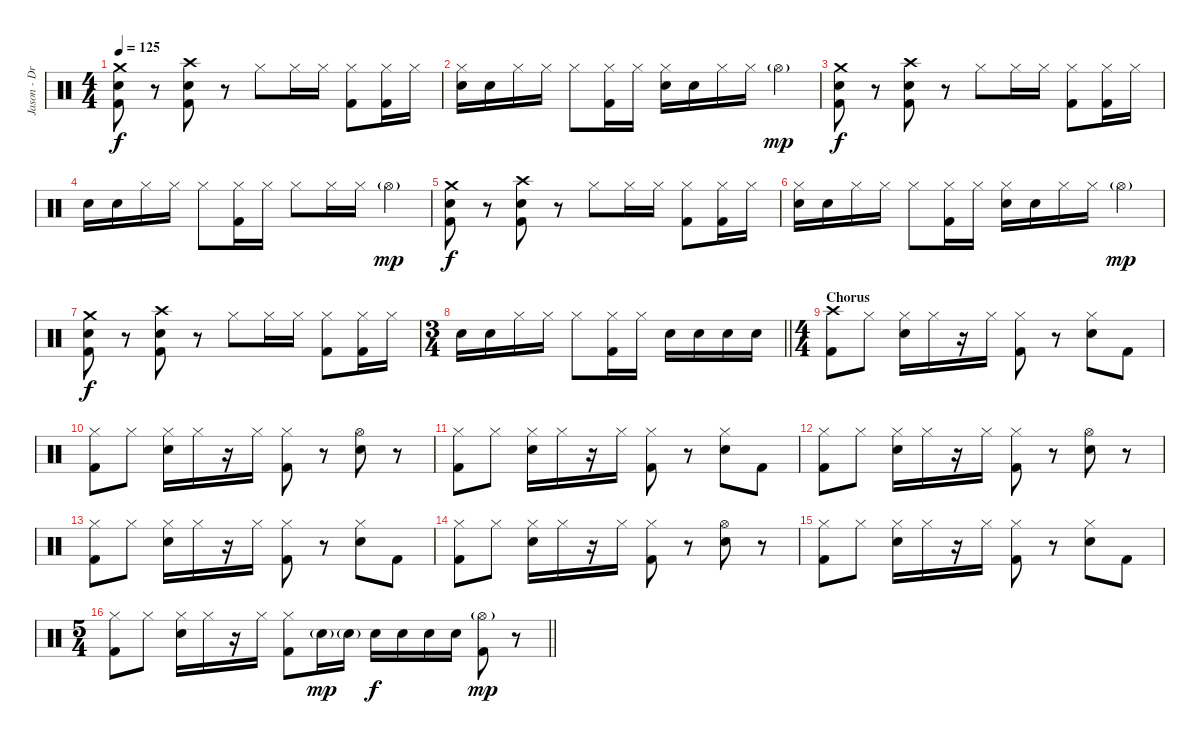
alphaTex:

\track ("Jason - Drums" "Jason - Dr") {instrument percussion}
\staff {score}
\articulation defaults
\ts (4 4)
\tempo 125
\clef neutral
\ks c
("Crash medium (hit)" "Electric Snare (hit)" "Kick (hit) 2").8{dy f} r.8 ("Crash high (hit)" "Electric Snare (hit)" "Kick (hit) 2").8 r.8 "Hi-Hat (closed)".8 "Hi-Hat (closed)".16 "Hi-Hat (closed)".16 ("Hi-Hat (closed)" "Kick (hit) 2").8 ("Hi-Hat (closed)" "Kick (hit) 2").16 "Hi-Hat (closed)".16 |
("Hi-Hat (closed)" "Electric Snare (hit)").16 "Electric Snare (hit)".16 "Hi-Hat (closed)".16 "Hi-Hat (closed)".16 "Hi-Hat (closed)".8 ("Hi-Hat (closed)" "Kick (hit) 2").16 "Hi-Hat (closed)".16 ("Hi-Hat (closed)" "Electric Snare (hit)").16 "Electric Snare (hit)".16 "Hi-Hat (closed)".16 "Hi-Hat (closed)".16 "Hi-Hat (open)"{g}.4{dy mp} |
("Crash medium (hit)" "Electric Snare (hit)" "Kick (hit) 2").8{dy f} r.8 ("Crash high (hit)" "Electric Snare (hit)" "Kick (hit) 2").8 r.8 "Hi-Hat (closed)".8 "Hi-Hat (closed)".16 "Hi-Hat (closed)".16 ("Hi-Hat (closed)" "Kick (hit) 2").8 ("Hi-Hat (closed)" "Kick (hit) 2").16 "Hi-Hat (closed)".16 |
"Electric Snare (hit)".16 "Electric Snare (hit)".16 "Hi-Hat (closed)".16 "Hi-Hat (closed)".16 "Hi-Hat (closed)".8 ("Hi-Hat (closed)" "Kick (hit) 2").16 "Hi-Hat (closed)".16 "Hi-Hat (closed)".8 "Hi-Hat (closed)".16 "Hi-Hat (closed)".16 "Hi-Hat (open)"{g}.4{dy mp} |
("Crash medium (hit)" "Electric Snare (hit)" "Kick (hit) 2").8{dy f} r.8 ("Crash high (hit)" "Electric Snare (hit)" "Kick (hit) 2").8 r.8 "Hi-Hat (closed)".8 "Hi-Hat (closed)".16 "Hi-Hat (closed)".16 ("Hi-Hat (closed)" "Kick (hit) 2").8 ("Hi-Hat (closed)" "Kick (hit) 2").16 "Hi-Hat (closed)".16 |
("Hi-Hat (closed)" "Electric Snare (hit)").16 "Electric Snare (hit)".16 "Hi-Hat (closed)".16 "Hi-Hat (closed)".16 "Hi-Hat (closed)".8 ("Hi-Hat (closed)" "Kick (hit) 2").16 "Hi-Hat (closed)".16 ("Hi-Hat (closed)" "Electric Snare (hit)").16 "Electric Snare (hit)".16 "Hi-Hat (closed)".16 "Hi-Hat (closed)".16 "Hi-Hat (open)"{g}.4{dy mp} |
("Crash medium (hit)" "Electric Snare (hit)" "Kick (hit) 2").8{dy f} r.8 ("Crash high (hit)" "Electric Snare (hit)" "Kick (hit) 2").8 r.8 "Hi-Hat (closed)".8 "Hi-Hat (closed)".16 "Hi-Hat (closed)".16 ("Hi-Hat (closed)" "Kick (hit) 2").8 ("Hi-Hat (closed)" "Kick (hit) 2").16 "Hi-Hat (closed)".16 |
\ts (3 4)
\barLineRight lightlight "Electric Snare (hit)".16 "Electric Snare (hit)".16 "Hi-Hat (closed)".16 "Hi-Hat (closed)".16 "Hi-Hat (closed)".8
("Hi-Hat (closed)" "Kick (hit) 2").16 "Hi-Hat (closed)".16 "Electric Snare (hit)".16 "Electric Snare (hit)".16 "Electric Snare (hit)".16 "Electric Snare (hit)".16 |
\ts (4 4)
\section ("" "Chorus")
("Crash high (hit)" "Kick (hit) 2").8 "Hi-Hat (closed)".8 ("Hi-Hat (closed)" "Electric Snare (hit)").16 "Hi-Hat (closed)".16 r.16 "Hi-Hat (closed)".16 ("Hi-Hat (closed)" "Kick (hit) 2").8 r.8 ("Hi-Hat (closed)" "Electric Snare (hit)").8 "Kick (hit) 2".8 |
("Hi-Hat (closed)" "Kick (hit) 2").8 "Hi-Hat (closed)".8 ("Hi-Hat (closed)" "Electric Snare (hit)").16 "Hi-Hat (closed)".16 r.16 "Hi-Hat (closed)".16 ("Hi-Hat (closed)" "Kick (hit) 2").8 r.8 ("Hi-Hat (open)" "Electric Snare (hit)").8 r.8 |
("Hi-Hat (closed)" "Kick (hit) 2").8 "Hi-Hat (closed)".8 ("Hi-Hat (closed)" "Electric Snare (hit)").16 "Hi-Hat (closed)".16 r.16 "Hi-Hat (closed)".16 ("Hi-Hat (closed)" "Kick (hit) 2").8 r.8 ("Hi-Hat (closed)" "Electric Snare (hit)").8 "Kick (hit) 2".8 |
("Hi-Hat (closed)" "Kick (hit) 2").8 "Hi-Hat (closed)".8 ("Hi-Hat (closed)" "Electric Snare (hit)").16 "Hi-Hat (closed)".16 r.16 "Hi-Hat (closed)".16 ("Hi-Hat (closed)" "Kick (hit) 2").8 r.8 ("Hi-Hat (open)" "Electric Snare (hit)").8 r.8 |
("Hi-Hat (closed)" "Kick (hit) 2").8 "Hi-Hat (closed)".8 ("Hi-Hat (closed)" "Electric Snare (hit)").16 "Hi-Hat (closed)".16 r.16 "Hi-Hat (closed)".16 ("Hi-Hat (closed)" "Kick (hit) 2").8 r.8 ("Hi-Hat (closed)" "Electric Snare (hit)").8 "Kick (hit) 2".8 |
("Hi-Hat (closed)" "Kick (hit) 2").8 "Hi-Hat (closed)".8 ("Hi-Hat (closed)" "Electric Snare (hit)").16 "Hi-Hat (closed)".16 r.16 "Hi-Hat (closed)".16 ("Hi-Hat (closed)" "Kick (hit) 2").8 r.8 ("Hi-Hat (open)" "Electric Snare (hit)").8 r.8 |
("Hi-Hat (closed)" "Kick (hit) 2").8 "Hi-Hat (closed)".8 ("Hi-Hat (closed)" "Electric Snare (hit)").16 "Hi-Hat (closed)".16 r.16 "Hi-Hat (closed)".16 ("Hi-Hat (closed)" "Kick (hit) 2").8 r.8 ("Hi-Hat (closed)" "Electric Snare (hit)").8 "Kick (hit) 2".8 |
\ts (5 4)
\barLineRight lightlight
("Hi-Hat (closed)" "Kick (hit) 2").8 "Hi-Hat (closed)".8 ("Hi-Hat (closed)" "Electric Snare (hit)").16 "Hi-Hat (closed)".16 r.16 "Hi-Hat (closed)".16 ("Hi-Hat (closed)" "Kick (hit) 2").8 "Electric Snare (hit)"{g}.16{dy mp} "Electric Snare (hit)"{g}.16 "Electric Snare (hit)".16{dy f} "Electric Snare (hit)".16 "Electric Snare (hit)".16 "Electric Snare (hit)".16 ("Hi-Hat (open)"{g} "Kick (hit) 2").8{dy mp} r.8
